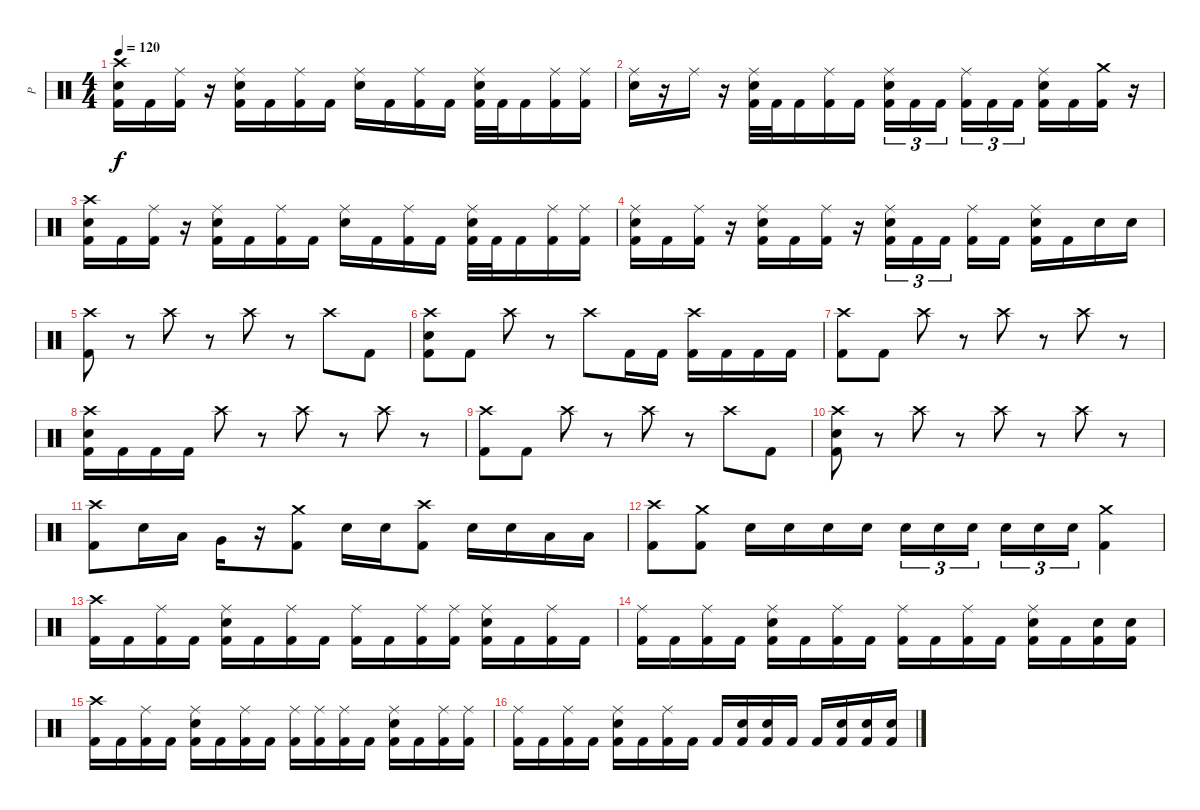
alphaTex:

\track ("P" "P") {instrument percussion}
\staff {score}
\articulation defaults
\ts (4 4)
\tempo 120
\clef neutral
\ks c
("Crash high (hit)" "Electric Snare (hit)" "Kick (hit) 2").16{dy f} "Kick (hit) 2".16 ("Ride (middle)" "Kick (hit) 2").16 r.16 ("Ride (middle)" "Electric Snare (hit)" "Kick (hit) 2").16 "Kick (hit) 2".16 ("Ride (middle)" "Kick (hit) 2").16 "Kick (hit) 2".16 ("Ride (middle)" "Electric Snare (hit)").16 "Kick (hit) 2".16 ("Ride (middle)" "Kick (hit) 2").16 "Kick (hit) 2".16 ("Ride (middle)" "Electric Snare (hit)" "Kick (hit) 2").32 "Kick (hit) 2".32 "Kick (hit) 2".16 ("Ride (middle)" "Kick (hit) 2").16 ("Ride (middle)" "Kick (hit) 2").16 |
("Ride (middle)" "Electric Snare (hit)").16 r.16 "Ride (middle)".16 r.16 ("Ride (middle)" "Electric Snare (hit)" "Kick (hit) 2").32 "Kick (hit) 2".32 "Kick (hit) 2".16 ("Ride (middle)" "Kick (hit) 2").16 "Kick (hit) 2".16 ("Ride (middle)" "Electric Snare (hit)" "Kick (hit) 2").16{tu (3 2)} "Kick (hit) 2".16{tu (3 2)} "Kick (hit) 2".16{tu (3 2) beam splitsecondary} ("Ride (middle)" "Kick (hit) 2").16{tu (3 2)} "Kick (hit) 2".16{tu (3 2)} "Kick (hit) 2".16{tu (3 2)} ("Ride (middle)" "Electric Snare (hit)" "Kick (hit) 2").16 "Kick (hit) 2".16 ("Crash medium (hit)" "Kick (hit) 2").16 r.16 |
("Crash high (hit)" "Electric Snare (hit)" "Kick (hit) 2").16 "Kick (hit) 2".16 ("Ride (middle)" "Kick (hit) 2").16 r.16 ("Ride (middle)" "Electric Snare (hit)" "Kick (hit) 2").16 "Kick (hit) 2".16 ("Ride (middle)" "Kick (hit) 2").16 "Kick (hit) 2".16 ("Ride (middle)" "Electric Snare (hit)").16 "Kick (hit) 2".16 ("Ride (middle)" "Kick (hit) 2").16 "Kick (hit) 2".16 ("Ride (middle)" "Electric Snare (hit)" "Kick (hit) 2").32 "Kick (hit) 2".32 "Kick (hit) 2".16 ("Ride (middle)" "Kick (hit) 2").16 ("Ride (middle)" "Kick (hit) 2").16 |
("Ride (middle)" "Electric Snare (hit)" "Kick (hit) 2").16 "Kick (hit) 2".16 ("Ride (middle)" "Kick (hit) 2").16 r.16 ("Ride (middle)" "Electric Snare (hit)" "Kick (hit) 2").16 "Kick (hit) 2".16 ("Ride (middle)" "Kick (hit) 2").16 r.16 ("Ride (middle)" "Electric Snare (hit)" "Kick (hit) 2").16{tu (3 2)} "Kick (hit) 2".16{tu (3 2)} "Kick (hit) 2".16{tu (3 2) beam splitsecondary} ("Ride (middle)" "Kick (hit) 2").16 "Kick (hit) 2".16 ("Ride (middle)" "Electric Snare (hit)" "Kick (hit) 2").16 "Kick (hit) 2".16 "Electric Snare (hit)".16 "Electric Snare (hit)".16 |
("Crash high (hit)" "Kick (hit) 2").8 r.8 "Crash high (hit)".8 r.8 "Crash high (hit)".8 r.8 "Crash high (hit)".8 "Kick (hit) 2".8 |
("Crash high (hit)" "Electric Snare (hit)" "Kick (hit) 2").8 "Kick (hit) 2".8 "Crash high (hit)".8 r.8 "Crash high (hit)".8 "Kick (hit) 2".16 "Kick (hit) 2".16 ("Crash high (hit)" "Kick (hit) 2").16 "Kick (hit) 2".16 "Kick (hit) 2".16 "Kick (hit) 2".16 |
("Crash high (hit)" "Kick (hit) 2").8 "Kick (hit) 2".8 "Crash high (hit)".8 r.8 "Crash high (hit)".8 r.8 "Crash high (hit)".8 r.8 |
("Crash high (hit)" "Electric Snare (hit)" "Kick (hit) 2").16 "Kick (hit) 2".16 "Kick (hit) 2".16 "Kick (hit) 2".16 "Crash high (hit)".8 r.8 "Crash high (hit)".8 r.8 "Crash high (hit)".8 r.8 |
("Crash high (hit)" "Kick (hit) 2").8 "Kick (hit) 2".8 "Crash high (hit)".8 r.8 "Crash high (hit)".8 r.8 "Crash high (hit)".8 "Kick (hit) 2".8 |
("Crash high (hit)" "Electric Snare (hit)" "Kick (hit) 2").8 r.8 "Crash high (hit)".8 r.8 "Crash high (hit)".8 r.8 "Crash high (hit)".8 r.8 |
("Crash high (hit)" "Kick (hit) 2").8 "Electric Snare (hit)".16 "Low Tom (hit)".16 "Very Low Tom (hit)".16 r.16 ("Crash medium (hit)" "Kick (hit) 2").8 "Electric Snare (hit)".16 "Electric Snare (hit)".16 ("Crash high (hit)" "Kick (hit) 2").8 "Electric Snare (hit)".16 "Electric Snare (hit)".16 "Low Tom (hit)".16 "Low Tom (hit)".16 |
("Crash high (hit)" "Kick (hit) 2").8 ("Crash medium (hit)" "Kick (hit) 2").8 "Electric Snare (hit)".16 "Electric Snare (hit)".16 "Electric Snare (hit)".16 "Electric Snare (hit)".16 "Electric Snare (hit)".16{tu (3 2)} "Electric Snare (hit)".16{tu (3 2)} "Electric Snare (hit)".16{tu (3 2) beam splitsecondary} "Electric Snare (hit)".16{tu (3 2)} "Electric Snare (hit)".16{tu (3 2)} "Electric Snare (hit)".16{tu (3 2)} ("Crash medium (hit)" "Kick (hit) 2").4 |
("Crash high (hit)" "Kick (hit) 2").16 "Kick (hit) 2".16 ("Ride (middle)" "Kick (hit) 2").16 "Kick (hit) 2".16 ("Ride (middle)" "Electric Snare (hit)" "Kick (hit) 2").16 "Kick (hit) 2".16 ("Ride (middle)" "Kick (hit) 2").16 "Kick (hit) 2".16 ("Ride (middle)" "Kick (hit) 2").16 "Kick (hit) 2".16 ("Ride (middle)" "Kick (hit) 2").16 ("Ride (middle)" "Kick (hit) 2").16 ("Ride (middle)" "Electric Snare (hit)" "Kick (hit) 2").16 "Kick (hit) 2".16 ("Ride (middle)" "Kick (hit) 2").16 "Kick (hit) 2".16 |
("Ride (middle)" "Kick (hit) 2").16 "Kick (hit) 2".16 ("Ride (middle)" "Kick (hit) 2").16 "Kick (hit) 2".16 ("Ride (middle)" "Electric Snare (hit)" "Kick (hit) 2").16 "Kick (hit) 2".16 ("Ride (middle)" "Kick (hit) 2").16 "Kick (hit) 2".16 ("Ride (middle)" "Kick (hit) 2").16 "Kick (hit) 2".16 ("Ride (middle)" "Kick (hit) 2").16 "Kick (hit) 2".16 ("Ride (middle)" "Electric Snare (hit)" "Kick (hit) 2").16 "Kick (hit) 2".16 ("Electric Snare (hit)" "Kick (hit) 2").16 ("Electric Snare (hit)" "Kick (hit) 2").16 |
("Crash high (hit)" "Kick (hit) 2").16 "Kick (hit) 2".16 ("Ride (middle)" "Kick (hit) 2").16 "Kick (hit) 2".16 ("Ride (middle)" "Electric Snare (hit)" "Kick (hit) 2").16 "Kick (hit) 2".16 ("Ride (middle)" "Kick (hit) 2").16 "Kick (hit) 2".16 ("Ride (middle)" "Kick (hit) 2").16 ("Ride (middle)" "Kick (hit) 2").16 ("Ride (middle)" "Kick (hit) 2").16 "Kick (hit) 2".16 ("Ride (middle)" "Electric Snare (hit)" "Kick (hit) 2").16 "Kick (hit) 2".16 ("Ride (middle)" "Kick (hit) 2").16 ("Ride (middle)" "Kick (hit) 2").16 |
("Ride (middle)" "Kick (hit) 2").16 "Kick (hit) 2".16 ("Ride (middle)" "Kick (hit) 2").16 "Kick (hit) 2".16 ("Ride (middle)" "Electric Snare (hit)" "Kick (hit) 2").16 "Kick (hit) 2".16 ("Ride (middle)" "Kick (hit) 2").16 "Kick (hit) 2".16 "Kick (hit) 2".16 ("Electric Snare (hit)" "Kick (hit) 2").16 ("Electric Snare (hit)" "Kick (hit) 2").16 "Kick (hit) 2".16 "Kick (hit) 2".16 ("Electric Snare (hit)" "Kick (hit) 2").16 ("Electric Snare (hit)" "Kick (hit) 2").16 ("Electric Snare (hit)" "Kick (hit) 2").16
